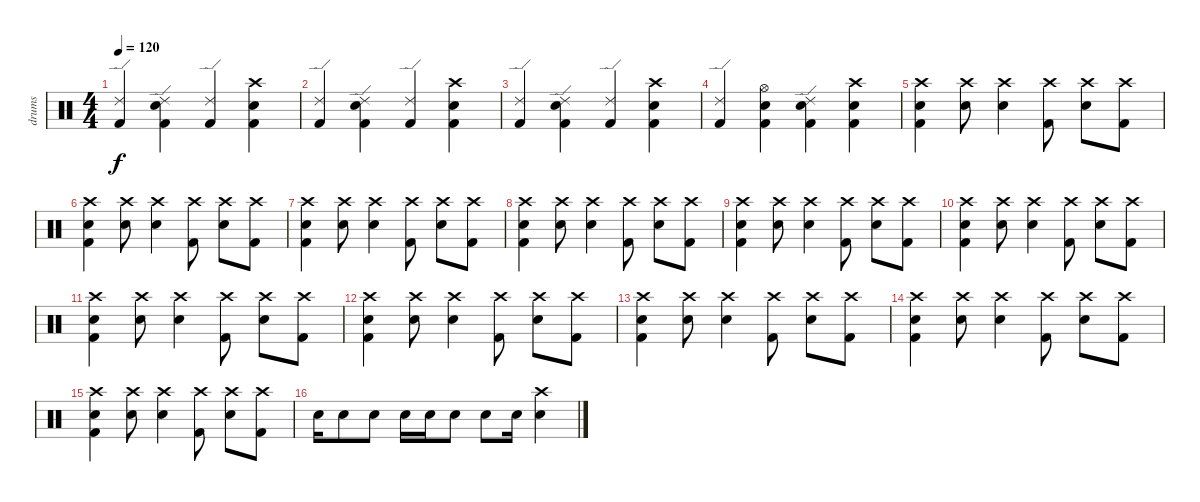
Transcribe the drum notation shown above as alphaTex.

\track ("drums" "drums") {instrument percussion}
\staff {score}
\articulation defaults
\ts (4 4)
\tempo 120
\clef neutral
\ks c
("Ride (edge) 2" "Kick (hit) 2").4{dy f} ("Ride (edge) 2" "Electric Snare (hit)" "Kick (hit) 2").4 ("Ride (edge) 2" "Kick (hit) 2").4 ("Crash high (hit)" "Electric Snare (hit)" "Kick (hit) 2").4 |
("Ride (edge) 2" "Kick (hit) 2").4 ("Ride (edge) 2" "Electric Snare (hit)" "Kick (hit) 2").4 ("Ride (edge) 2" "Kick (hit) 2").4 ("Crash high (hit)" "Electric Snare (hit)" "Kick (hit) 2").4 |
("Ride (edge) 2" "Kick (hit) 2").4 ("Ride (edge) 2" "Electric Snare (hit)" "Kick (hit) 2").4 ("Ride (edge) 2" "Kick (hit) 2").4 ("Crash high (hit)" "Electric Snare (hit)" "Kick (hit) 2").4 |
("Ride (edge) 2" "Kick (hit) 2").4 ("Hi-Hat (open)" "Electric Snare (hit)" "Kick (hit) 2").4 ("Ride (edge) 2" "Electric Snare (hit)" "Kick (hit) 2").4 ("Crash high (hit)" "Electric Snare (hit)" "Kick (hit) 2").4 |
("Crash high (hit)" "Electric Snare (hit)" "Kick (hit) 2").4 ("Crash high (hit)" "Electric Snare (hit)").8 ("Crash high (hit)" "Electric Snare (hit)").4 ("Crash high (hit)" "Kick (hit) 2").8 ("Crash high (hit)" "Electric Snare (hit)").8 ("Crash high (hit)" "Kick (hit) 2").8 |
("Crash high (hit)" "Electric Snare (hit)" "Kick (hit) 2").4 ("Crash high (hit)" "Electric Snare (hit)").8 ("Crash high (hit)" "Electric Snare (hit)").4 ("Crash high (hit)" "Kick (hit) 2").8 ("Crash high (hit)" "Electric Snare (hit)").8 ("Crash high (hit)" "Kick (hit) 2").8 |
("Crash high (hit)" "Electric Snare (hit)" "Kick (hit) 2").4 ("Crash high (hit)" "Electric Snare (hit)").8 ("Crash high (hit)" "Electric Snare (hit)").4 ("Crash high (hit)" "Kick (hit) 2").8 ("Crash high (hit)" "Electric Snare (hit)").8 ("Crash high (hit)" "Kick (hit) 2").8 |
("Crash high (hit)" "Electric Snare (hit)" "Kick (hit) 2").4 ("Crash high (hit)" "Electric Snare (hit)").8 ("Crash high (hit)" "Electric Snare (hit)").4 ("Crash high (hit)" "Kick (hit) 2").8 ("Crash high (hit)" "Electric Snare (hit)").8 ("Crash high (hit)" "Kick (hit) 2").8 |
("Crash high (hit)" "Electric Snare (hit)" "Kick (hit) 2").4 ("Crash high (hit)" "Electric Snare (hit)").8 ("Crash high (hit)" "Electric Snare (hit)").4 ("Crash high (hit)" "Kick (hit) 2").8 ("Crash high (hit)" "Electric Snare (hit)").8 ("Crash high (hit)" "Kick (hit) 2").8 |
("Crash high (hit)" "Electric Snare (hit)" "Kick (hit) 2").4 ("Crash high (hit)" "Electric Snare (hit)").8 ("Crash high (hit)" "Electric Snare (hit)").4 ("Crash high (hit)" "Kick (hit) 2").8 ("Crash high (hit)" "Electric Snare (hit)").8 ("Crash high (hit)" "Kick (hit) 2").8 |
("Crash high (hit)" "Electric Snare (hit)" "Kick (hit) 2").4 ("Crash high (hit)" "Electric Snare (hit)").8 ("Crash high (hit)" "Electric Snare (hit)").4 ("Crash high (hit)" "Kick (hit) 2").8 ("Crash high (hit)" "Electric Snare (hit)").8 ("Crash high (hit)" "Kick (hit) 2").8 |
("Crash high (hit)" "Electric Snare (hit)" "Kick (hit) 2").4 ("Crash high (hit)" "Electric Snare (hit)").8 ("Crash high (hit)" "Electric Snare (hit)").4 ("Crash high (hit)" "Kick (hit) 2").8 ("Crash high (hit)" "Electric Snare (hit)").8 ("Crash high (hit)" "Kick (hit) 2").8 |
("Crash high (hit)" "Electric Snare (hit)" "Kick (hit) 2").4 ("Crash high (hit)" "Electric Snare (hit)").8 ("Crash high (hit)" "Electric Snare (hit)").4 ("Crash high (hit)" "Kick (hit) 2").8 ("Crash high (hit)" "Electric Snare (hit)").8 ("Crash high (hit)" "Kick (hit) 2").8 |
("Crash high (hit)" "Electric Snare (hit)" "Kick (hit) 2").4 ("Crash high (hit)" "Electric Snare (hit)").8 ("Crash high (hit)" "Electric Snare (hit)").4 ("Crash high (hit)" "Kick (hit) 2").8 ("Crash high (hit)" "Electric Snare (hit)").8 ("Crash high (hit)" "Kick (hit) 2").8 |
("Crash high (hit)" "Electric Snare (hit)" "Kick (hit) 2").4 ("Crash high (hit)" "Electric Snare (hit)").8 ("Crash high (hit)" "Electric Snare (hit)").4 ("Crash high (hit)" "Kick (hit) 2").8 ("Crash high (hit)" "Electric Snare (hit)").8 ("Crash high (hit)" "Kick (hit) 2").8 |
"Electric Snare (hit)".16 "Electric Snare (hit)".8 "Electric Snare (hit)".8 "Electric Snare (hit)".16 "Electric Snare (hit)".16 "Electric Snare (hit)".8 "Electric Snare (hit)".8 "Electric Snare (hit)".16 ("Crash high (hit)" "Electric Snare (hit)").4
